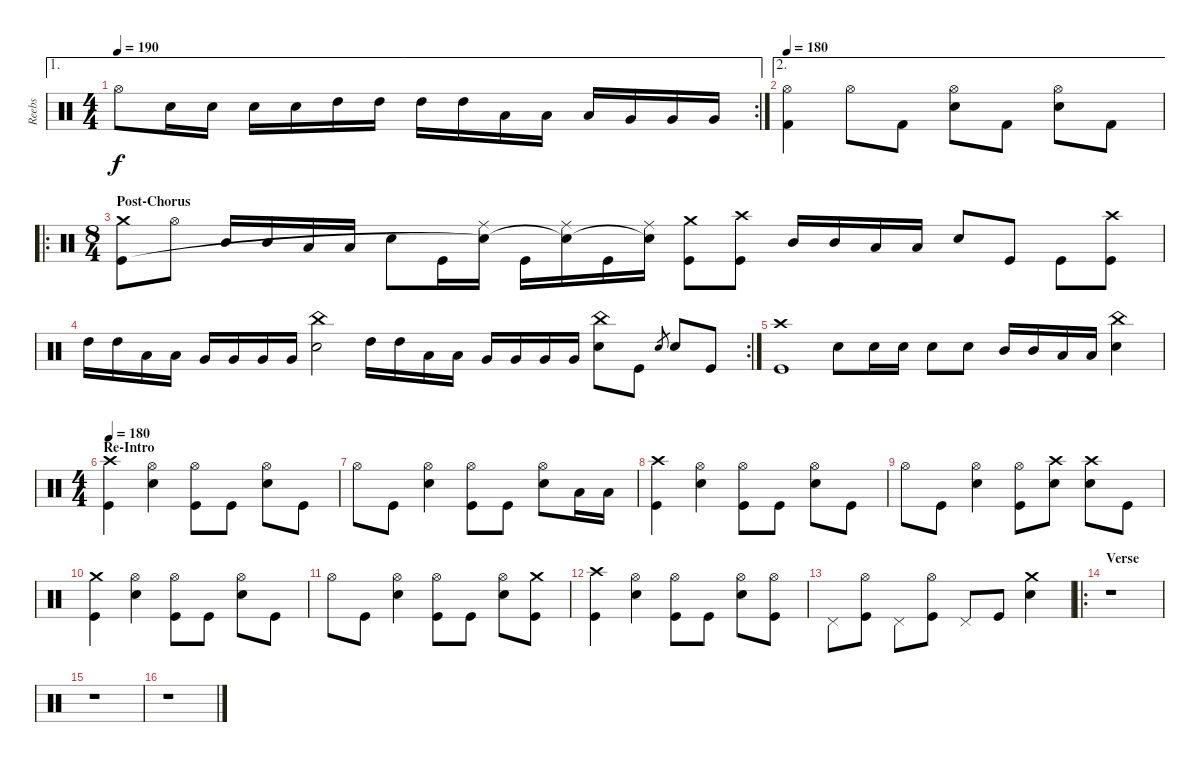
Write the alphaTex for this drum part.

\track ("Reebs" "Reebs") {instrument percussion}
\staff {score}
\articulation defaults
\ae 1
\rc 2
\ts (4 4)
\tempo 190
\clef neutral
\ks c "Hi-Hat (open)".8{dy f} "Electric Snare (hit)".16 "Electric Snare (hit)".16 "Electric Snare (hit)".16 "Electric Snare (hit)".16 "High Tom (hit)".16 "High Tom (hit)".16 "High Tom (hit)".16 "High Tom (hit)".16 "Low Tom (hit)".16 "Low Tom (hit)".16 "Low Tom (hit)".16 "Very Low Tom (hit)".16 "Very Low Tom (hit)".16 "Very Low Tom (hit)".16
|
\ae 2
\tempo 180
("Hi-Hat (open)" "Kick (hit) 2").4 "Hi-Hat (open)".8 "Kick (hit) 2".8 ("Hi-Hat (open)" "Snare (hit) 2").8 "Kick (hit) 2".8 ("Hi-Hat (open)" "Snare (hit) 2").8 "Kick (hit) 2".8 |
\ro
\ts (8 4)
\section ("" "Post-Chorus")
("Crash medium (hit)" "Kick (hit)").8 "Hi-Hat (open)".8 "Mid Tom (hit)".16 "Mid Tom (hit)".16 "Low Tom (hit)".16 "Low Tom (hit)".16 "Electric Snare (hit)".8 "Kick (hit)".16 ("Ride (middle)" "Snare (hit)"{t}).16 "Kick (hit)".16 ("Ride (middle)" "Snare (hit)"{t}).16 "Kick (hit)".16 ("Ride (middle)" "Snare (hit)"{t}).16 ("Crash medium (hit)" "Kick (hit)").8 ("Crash high (hit)" "Kick (hit)").8 "Mid Tom (hit)".16 "Mid Tom (hit)".16 "Low Tom (hit)".16 "Low Tom (hit)".16 "Electric Snare (hit)".8 "Kick (hit)".8 "Kick (hit)".8 ("Crash high (hit)" "Kick (hit)").8 |
\rc 2 "High Tom (hit)".16 "High Tom (hit)".16 "Low Tom (hit)".16 "Low Tom (hit)".16 "Very Low Tom (hit)".16 "Very Low Tom (hit)".16 "Very Low Tom (hit)".16 "Very Low Tom (hit)".16
("China (hit)" "Electric Snare (hit)").2 "High Tom (hit)".16 "High Tom (hit)".16 "Low Tom (hit)".16 "Low Tom (hit)".16 "Very Low Tom (hit)".16 "Very Low Tom (hit)".16 "Very Low Tom (hit)".16 "Very Low Tom (hit)".16 ("China (hit)" "Electric Snare (hit)").8 "Kick (hit)".8 "Electric Snare (hit)".8{gr} "Electric Snare (hit)".8 "Kick (hit)".8 |
("Crash high (hit)" "Kick (hit)").1 "Electric Snare (hit)".8 "Electric Snare (hit)".16 "Electric Snare (hit)".16 "Electric Snare (hit)".8 "Electric Snare (hit)".8 "Mid Tom (hit)".16 "Mid Tom (hit)".16 "Low Tom (hit)".16 "Low Tom (hit)".16 ("China (hit)" "Electric Snare (hit)").4 |
\ts (4 4)
\section ("" "Re-Intro")
\tempo 180
("Crash high (hit)" "Kick (hit)").4 ("Hi-Hat (open)" "Electric Snare (hit)").4 ("Hi-Hat (open)" "Kick (hit)").8 "Kick (hit)".8 ("Hi-Hat (open)" "Electric Snare (hit)").8 "Kick (hit)".8 |
"Hi-Hat (open)".8 "Kick (hit)".8 ("Hi-Hat (open)" "Electric Snare (hit)").4 ("Hi-Hat (open)" "Kick (hit)").8 "Kick (hit)".8 ("Hi-Hat (open)" "Electric Snare (hit)").8 "Low Tom (hit)".16 "Low Tom (hit)".16 |
("Crash high (hit)" "Kick (hit)").4 ("Hi-Hat (open)" "Electric Snare (hit)").4 ("Hi-Hat (open)" "Kick (hit)").8 "Kick (hit)".8 ("Hi-Hat (open)" "Electric Snare (hit)").8 "Kick (hit)".8 |
"Hi-Hat (open)".8 "Kick (hit)".8 ("Hi-Hat (open)" "Electric Snare (hit)").4 ("Hi-Hat (open)" "Kick (hit)").8 ("Crash high (hit)" "Electric Snare (hit)").8 ("Crash high (hit)" "Electric Snare (hit)").8 "Kick (hit)".8 |
("Crash medium (hit)" "Kick (hit)").4 ("Hi-Hat (open)" "Electric Snare (hit)").4 ("Hi-Hat (open)" "Kick (hit)").8 "Kick (hit)".8 ("Hi-Hat (open)" "Electric Snare (hit)").8 "Kick (hit)".8 |
"Hi-Hat (open)".8 "Kick (hit)".8 ("Hi-Hat (open)" "Electric Snare (hit)").4 ("Hi-Hat (open)" "Kick (hit)").8 "Kick (hit)".8 ("Hi-Hat (open)" "Electric Snare (hit)").8 ("Crash medium (hit)" "Kick (hit)").8 |
("Crash high (hit)" "Kick (hit)").4 ("Hi-Hat (open)" "Electric Snare (hit)").4 ("Hi-Hat (open)" "Kick (hit)").8 "Kick (hit)".8 ("Hi-Hat (open)" "Electric Snare (hit)").8 ("Hi-Hat (open)" "Kick (hit)").8 |
"Pedal Hi-Hat (hit)".8 ("Hi-Hat (open)" "Kick (hit)").8 "Pedal Hi-Hat (hit)".8 ("Hi-Hat (open)" "Kick (hit)").8 "Pedal Hi-Hat (hit)".8 "Kick (hit)".8 ("Crash medium (hit)" "Electric Snare (hit)").4 |
\ro
\section ("" "Verse")
r.1 |
r.1 |
r.1
